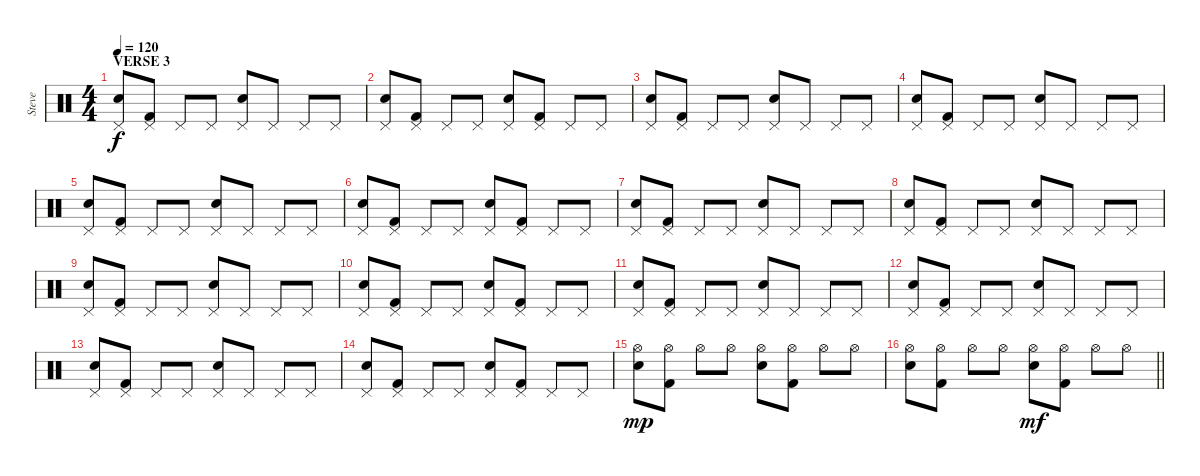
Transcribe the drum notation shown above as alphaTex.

\track ("Steve" "Steve") {instrument percussion}
\staff {score}
\articulation defaults
\ts (4 4)
\section ("" "VERSE 3")
\tempo 120
\clef neutral
\ks c
("Pedal Hi-Hat (hit)" "Electric Snare (hit)").8{dy f} ("Pedal Hi-Hat (hit)" "Kick (hit) 2").8 "Pedal Hi-Hat (hit)".8 "Pedal Hi-Hat (hit)".8 ("Pedal Hi-Hat (hit)" "Electric Snare (hit)").8 "Pedal Hi-Hat (hit)".8 "Pedal Hi-Hat (hit)".8 "Pedal Hi-Hat (hit)".8 |
("Pedal Hi-Hat (hit)" "Electric Snare (hit)").8 ("Pedal Hi-Hat (hit)" "Kick (hit) 2").8 "Pedal Hi-Hat (hit)".8 "Pedal Hi-Hat (hit)".8 ("Pedal Hi-Hat (hit)" "Electric Snare (hit)").8 ("Pedal Hi-Hat (hit)" "Kick (hit) 2").8 "Pedal Hi-Hat (hit)".8 "Pedal Hi-Hat (hit)".8 |
("Pedal Hi-Hat (hit)" "Electric Snare (hit)").8 ("Pedal Hi-Hat (hit)" "Kick (hit) 2").8 "Pedal Hi-Hat (hit)".8 "Pedal Hi-Hat (hit)".8 ("Pedal Hi-Hat (hit)" "Electric Snare (hit)").8 "Pedal Hi-Hat (hit)".8 "Pedal Hi-Hat (hit)".8 "Pedal Hi-Hat (hit)".8 |
("Pedal Hi-Hat (hit)" "Electric Snare (hit)").8 ("Pedal Hi-Hat (hit)" "Kick (hit) 2").8 "Pedal Hi-Hat (hit)".8 "Pedal Hi-Hat (hit)".8 ("Pedal Hi-Hat (hit)" "Electric Snare (hit)").8 "Pedal Hi-Hat (hit)".8 "Pedal Hi-Hat (hit)".8 "Pedal Hi-Hat (hit)".8 |
("Pedal Hi-Hat (hit)" "Electric Snare (hit)").8 ("Pedal Hi-Hat (hit)" "Kick (hit) 2").8 "Pedal Hi-Hat (hit)".8 "Pedal Hi-Hat (hit)".8 ("Pedal Hi-Hat (hit)" "Electric Snare (hit)").8 "Pedal Hi-Hat (hit)".8 "Pedal Hi-Hat (hit)".8 "Pedal Hi-Hat (hit)".8 |
("Pedal Hi-Hat (hit)" "Electric Snare (hit)").8 ("Pedal Hi-Hat (hit)" "Kick (hit) 2").8 "Pedal Hi-Hat (hit)".8 "Pedal Hi-Hat (hit)".8 ("Pedal Hi-Hat (hit)" "Electric Snare (hit)").8 ("Pedal Hi-Hat (hit)" "Kick (hit) 2").8 "Pedal Hi-Hat (hit)".8 "Pedal Hi-Hat (hit)".8 |
("Pedal Hi-Hat (hit)" "Electric Snare (hit)").8 ("Pedal Hi-Hat (hit)" "Kick (hit) 2").8 "Pedal Hi-Hat (hit)".8 "Pedal Hi-Hat (hit)".8 ("Pedal Hi-Hat (hit)" "Electric Snare (hit)").8 "Pedal Hi-Hat (hit)".8 "Pedal Hi-Hat (hit)".8 "Pedal Hi-Hat (hit)".8 |
("Pedal Hi-Hat (hit)" "Electric Snare (hit)").8 ("Pedal Hi-Hat (hit)" "Kick (hit) 2").8 "Pedal Hi-Hat (hit)".8 "Pedal Hi-Hat (hit)".8 ("Pedal Hi-Hat (hit)" "Electric Snare (hit)").8 "Pedal Hi-Hat (hit)".8 "Pedal Hi-Hat (hit)".8 "Pedal Hi-Hat (hit)".8 |
("Pedal Hi-Hat (hit)" "Electric Snare (hit)").8 ("Pedal Hi-Hat (hit)" "Kick (hit) 2").8 "Pedal Hi-Hat (hit)".8 "Pedal Hi-Hat (hit)".8 ("Pedal Hi-Hat (hit)" "Electric Snare (hit)").8 "Pedal Hi-Hat (hit)".8 "Pedal Hi-Hat (hit)".8 "Pedal Hi-Hat (hit)".8 |
("Pedal Hi-Hat (hit)" "Electric Snare (hit)").8 ("Pedal Hi-Hat (hit)" "Kick (hit) 2").8 "Pedal Hi-Hat (hit)".8 "Pedal Hi-Hat (hit)".8 ("Pedal Hi-Hat (hit)" "Electric Snare (hit)").8 ("Pedal Hi-Hat (hit)" "Kick (hit) 2").8 "Pedal Hi-Hat (hit)".8 "Pedal Hi-Hat (hit)".8 |
("Pedal Hi-Hat (hit)" "Electric Snare (hit)").8 ("Pedal Hi-Hat (hit)" "Kick (hit) 2").8 "Pedal Hi-Hat (hit)".8 "Pedal Hi-Hat (hit)".8 ("Pedal Hi-Hat (hit)" "Electric Snare (hit)").8 "Pedal Hi-Hat (hit)".8 "Pedal Hi-Hat (hit)".8 "Pedal Hi-Hat (hit)".8 |
("Pedal Hi-Hat (hit)" "Electric Snare (hit)").8 ("Pedal Hi-Hat (hit)" "Kick (hit) 2").8 "Pedal Hi-Hat (hit)".8 "Pedal Hi-Hat (hit)".8 ("Pedal Hi-Hat (hit)" "Electric Snare (hit)").8 "Pedal Hi-Hat (hit)".8 "Pedal Hi-Hat (hit)".8 "Pedal Hi-Hat (hit)".8 |
("Pedal Hi-Hat (hit)" "Electric Snare (hit)").8 ("Pedal Hi-Hat (hit)" "Kick (hit) 2").8 "Pedal Hi-Hat (hit)".8 "Pedal Hi-Hat (hit)".8 ("Pedal Hi-Hat (hit)" "Electric Snare (hit)").8 "Pedal Hi-Hat (hit)".8 "Pedal Hi-Hat (hit)".8 "Pedal Hi-Hat (hit)".8 |
("Pedal Hi-Hat (hit)" "Electric Snare (hit)").8 ("Pedal Hi-Hat (hit)" "Kick (hit) 2").8 "Pedal Hi-Hat (hit)".8 "Pedal Hi-Hat (hit)".8 ("Pedal Hi-Hat (hit)" "Electric Snare (hit)").8 ("Pedal Hi-Hat (hit)" "Kick (hit) 2").8 "Pedal Hi-Hat (hit)".8 "Pedal Hi-Hat (hit)".8 |
("Hi-Hat (open)" "Electric Snare (hit)").8{dy mp} ("Hi-Hat (open)" "Kick (hit) 2").8 "Hi-Hat (open)".8 "Hi-Hat (open)".8 ("Hi-Hat (open)" "Electric Snare (hit)").8 ("Hi-Hat (open)" "Kick (hit) 2").8 "Hi-Hat (open)".8 "Hi-Hat (open)".8 |
\barLineRight lightlight
("Hi-Hat (open)" "Electric Snare (hit)").8 ("Hi-Hat (open)" "Kick (hit) 2").8 "Hi-Hat (open)".8 "Hi-Hat (open)".8 ("Hi-Hat (open)" "Electric Snare (hit)").8{dy mf} ("Hi-Hat (open)" "Kick (hit) 2").8 "Hi-Hat (open)".8 "Hi-Hat (open)".8
